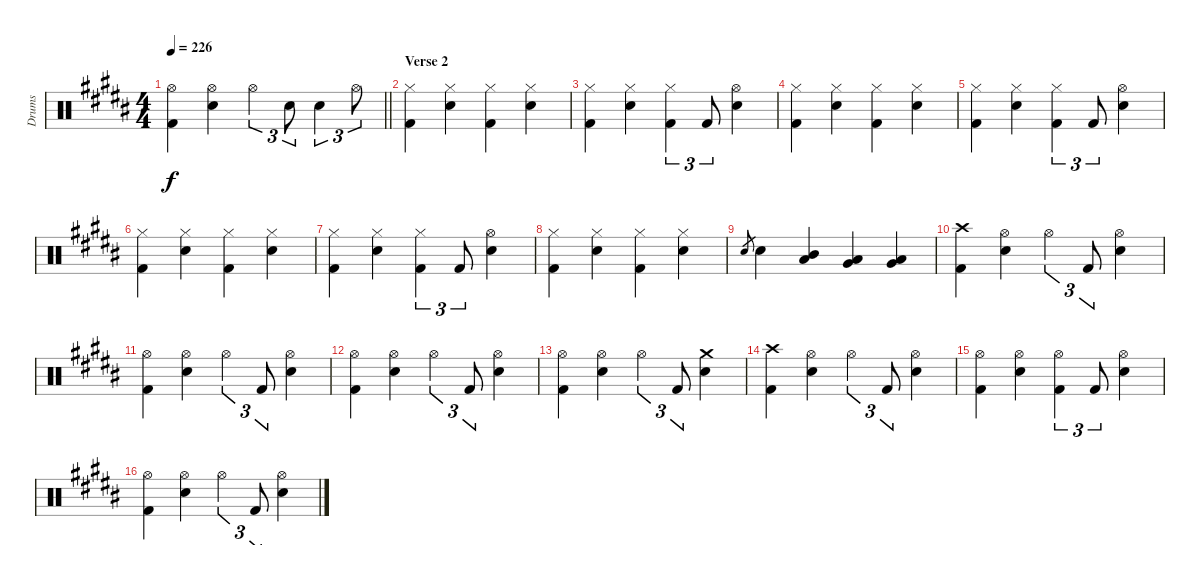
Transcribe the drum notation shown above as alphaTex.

\track ("Drums" "Drums") {instrument percussion}
\staff {score}
\articulation defaults
\ts (4 4)
\tempo 226
\clef neutral
\barLineRight lightlight
\ks b
("Hi-Hat (open)" "Kick (hit) 2").4{dy f} ("Hi-Hat (open)" "Snare (hit) 2").4 "Hi-Hat (open)".4{tu (3 2)} "Snare (hit) 2".8{tu (3 2)} "Snare (hit) 2".4{tu (3 2)} "Hi-Hat (open)".8{tu (3 2)} |
\section ("" "Verse 2")
("Hi-Hat (closed)" "Kick (hit) 2").4 ("Hi-Hat (closed)" "Snare (hit) 2").4 ("Hi-Hat (closed)" "Kick (hit) 2").4 ("Hi-Hat (closed)" "Snare (hit) 2").4 |
("Hi-Hat (closed)" "Kick (hit) 2").4 ("Hi-Hat (closed)" "Snare (hit) 2").4 ("Hi-Hat (closed)" "Kick (hit) 2").4{tu (3 2)} "Kick (hit) 2".8{tu (3 2)} ("Hi-Hat (open)" "Snare (hit) 2").4 |
("Hi-Hat (closed)" "Kick (hit) 2").4 ("Hi-Hat (closed)" "Snare (hit) 2").4 ("Hi-Hat (closed)" "Kick (hit) 2").4 ("Hi-Hat (closed)" "Snare (hit) 2").4 |
("Hi-Hat (closed)" "Kick (hit) 2").4 ("Hi-Hat (closed)" "Snare (hit) 2").4 ("Hi-Hat (closed)" "Kick (hit) 2").4{tu (3 2)} "Kick (hit) 2".8{tu (3 2)} ("Hi-Hat (open)" "Snare (hit) 2").4 |
("Hi-Hat (closed)" "Kick (hit) 2").4 ("Hi-Hat (closed)" "Snare (hit) 2").4 ("Hi-Hat (closed)" "Kick (hit) 2").4 ("Hi-Hat (closed)" "Snare (hit) 2").4 |
("Hi-Hat (closed)" "Kick (hit) 2").4 ("Hi-Hat (closed)" "Snare (hit) 2").4 ("Hi-Hat (closed)" "Kick (hit) 2").4{tu (3 2)} "Kick (hit) 2".8{tu (3 2)} ("Hi-Hat (open)" "Snare (hit) 2").4 |
("Hi-Hat (closed)" "Kick (hit) 2").4 ("Hi-Hat (closed)" "Snare (hit) 2").4 ("Hi-Hat (closed)" "Kick (hit) 2").4 ("Hi-Hat (closed)" "Snare (hit) 2").4 |
"Snare (hit) 2".8{gr} "Snare (hit) 2".4 ("Mid Tom (hit)" "Low Tom (hit)").4 ("Low Tom (hit)" "Very Low Tom (hit)").4 ("Very Low Tom (hit)" "Low Floor Tom (hit)").4 |
("Crash high (hit)" "Kick (hit) 2").4 ("Hi-Hat (open)" "Snare (hit) 2").4 "Hi-Hat (open)".4{tu (3 2)} "Kick (hit) 2".8{tu (3 2)} ("Hi-Hat (open)" "Snare (hit) 2").4 |
("Hi-Hat (open)" "Kick (hit) 2").4 ("Hi-Hat (open)" "Snare (hit) 2").4 "Hi-Hat (open)".4{tu (3 2)} "Kick (hit) 2".8{tu (3 2)} ("Hi-Hat (open)" "Snare (hit) 2").4 |
("Hi-Hat (open)" "Kick (hit) 2").4 ("Hi-Hat (open)" "Snare (hit) 2").4 "Hi-Hat (open)".4{tu (3 2)} "Kick (hit) 2".8{tu (3 2)} ("Hi-Hat (open)" "Snare (hit) 2").4 |
("Hi-Hat (open)" "Kick (hit) 2").4 ("Hi-Hat (open)" "Snare (hit) 2").4 "Hi-Hat (open)".4{tu (3 2)} "Kick (hit) 2".8{tu (3 2)} ("Crash medium (hit)" "Snare (hit) 2").4 |
("Crash high (hit)" "Kick (hit) 2").4 ("Hi-Hat (open)" "Snare (hit) 2").4 "Hi-Hat (open)".4{tu (3 2)} "Kick (hit) 2".8{tu (3 2)} ("Hi-Hat (open)" "Snare (hit) 2").4 |
("Hi-Hat (open)" "Kick (hit) 2").4 ("Hi-Hat (open)" "Snare (hit) 2").4 ("Hi-Hat (open)" "Kick (hit) 2").4{tu (3 2)} "Kick (hit) 2".8{tu (3 2)} ("Hi-Hat (open)" "Snare (hit) 2").4 |
("Hi-Hat (open)" "Kick (hit) 2").4 ("Hi-Hat (open)" "Snare (hit) 2").4 "Hi-Hat (open)".4{tu (3 2)} "Kick (hit) 2".8{tu (3 2)} ("Hi-Hat (open)" "Snare (hit) 2").4
